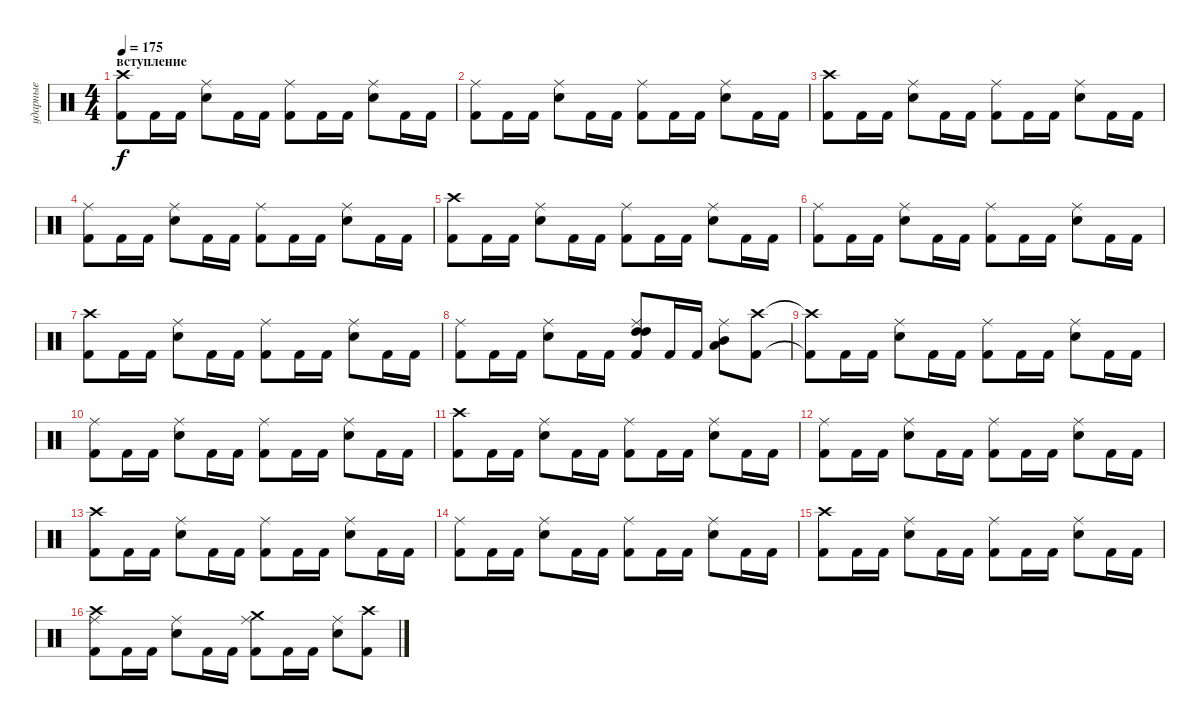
\track ("ударные" "ударные") {instrument percussion}
\staff {score}
\articulation defaults
\ts (4 4)
\section ("" "вступление")
\tempo 175
\clef neutral
\ks c
("Kick (hit) 2" "Crash high (hit)").8{dy f} "Kick (hit) 2".16 "Kick (hit) 2".16 ("Snare (hit) 2" "Ride (middle)").8 "Kick (hit) 2".16 "Kick (hit) 2".16 ("Kick (hit) 2" "Ride (middle)").8 "Kick (hit) 2".16 "Kick (hit) 2".16 ("Snare (hit) 2" "Ride (middle)").8 "Kick (hit) 2".16 "Kick (hit) 2".16 |
("Kick (hit) 2" "Ride (middle)").8 "Kick (hit) 2".16 "Kick (hit) 2".16 ("Snare (hit) 2" "Ride (middle)").8 "Kick (hit) 2".16 "Kick (hit) 2".16 ("Kick (hit) 2" "Ride (middle)").8 "Kick (hit) 2".16 "Kick (hit) 2".16 ("Snare (hit) 2" "Ride (middle)").8 "Kick (hit) 2".16 "Kick (hit) 2".16 |
("Kick (hit) 2" "Crash high (hit)").8 "Kick (hit) 2".16 "Kick (hit) 2".16 ("Snare (hit) 2" "Ride (middle)").8 "Kick (hit) 2".16 "Kick (hit) 2".16 ("Kick (hit) 2" "Ride (middle)").8 "Kick (hit) 2".16 "Kick (hit) 2".16 ("Snare (hit) 2" "Ride (middle)").8 "Kick (hit) 2".16 "Kick (hit) 2".16 |
("Kick (hit) 2" "Ride (middle)").8 "Kick (hit) 2".16 "Kick (hit) 2".16 ("Snare (hit) 2" "Ride (middle)").8 "Kick (hit) 2".16 "Kick (hit) 2".16 ("Kick (hit) 2" "Ride (middle)").8 "Kick (hit) 2".16 "Kick (hit) 2".16 ("Snare (hit) 2" "Ride (middle)").8 "Kick (hit) 2".16 "Kick (hit) 2".16 |
("Kick (hit) 2" "Crash high (hit)").8 "Kick (hit) 2".16 "Kick (hit) 2".16 ("Snare (hit) 2" "Ride (middle)").8 "Kick (hit) 2".16 "Kick (hit) 2".16 ("Kick (hit) 2" "Ride (middle)").8 "Kick (hit) 2".16 "Kick (hit) 2".16 ("Snare (hit) 2" "Ride (middle)").8 "Kick (hit) 2".16 "Kick (hit) 2".16 |
("Kick (hit) 2" "Ride (middle)").8 "Kick (hit) 2".16 "Kick (hit) 2".16 ("Snare (hit) 2" "Ride (middle)").8 "Kick (hit) 2".16 "Kick (hit) 2".16 ("Kick (hit) 2" "Ride (middle)").8 "Kick (hit) 2".16 "Kick (hit) 2".16 ("Snare (hit) 2" "Ride (middle)").8 "Kick (hit) 2".16 "Kick (hit) 2".16 |
("Kick (hit) 2" "Crash high (hit)").8 "Kick (hit) 2".16 "Kick (hit) 2".16 ("Snare (hit) 2" "Ride (middle)").8 "Kick (hit) 2".16 "Kick (hit) 2".16 ("Kick (hit) 2" "Ride (middle)").8 "Kick (hit) 2".16 "Kick (hit) 2".16 ("Snare (hit) 2" "Ride (middle)").8 "Kick (hit) 2".16 "Kick (hit) 2".16 |
("Kick (hit) 2" "Ride (middle)").8 "Kick (hit) 2".16 "Kick (hit) 2".16 ("Snare (hit) 2" "Ride (middle)").8 "Kick (hit) 2".16 "Kick (hit) 2".16 ("Kick (hit) 2" "High Tom (hit)" "Ride (middle)" "High Tom (hit)").8 "Kick (hit) 2".16 "Kick (hit) 2".16 ("Mid Tom (hit)" "Ride (middle)" "Low Tom (hit)").8 ("Kick (hit) 2" "Crash high (hit)").8 |
("Kick (hit) 2"{t} "Crash high (hit)"{t}).8 "Kick (hit) 2".16 "Kick (hit) 2".16 ("Snare (hit) 2" "Ride (middle)").8 "Kick (hit) 2".16 "Kick (hit) 2".16 ("Kick (hit) 2" "Ride (middle)").8 "Kick (hit) 2".16 "Kick (hit) 2".16 ("Snare (hit) 2" "Ride (middle)").8 "Kick (hit) 2".16 "Kick (hit) 2".16 |
("Kick (hit) 2" "Ride (middle)").8 "Kick (hit) 2".16 "Kick (hit) 2".16 ("Snare (hit) 2" "Ride (middle)").8 "Kick (hit) 2".16 "Kick (hit) 2".16 ("Kick (hit) 2" "Ride (middle)").8 "Kick (hit) 2".16 "Kick (hit) 2".16 ("Snare (hit) 2" "Ride (middle)").8 "Kick (hit) 2".16 "Kick (hit) 2".16 |
("Kick (hit) 2" "Crash high (hit)").8 "Kick (hit) 2".16 "Kick (hit) 2".16 ("Snare (hit) 2" "Ride (middle)").8 "Kick (hit) 2".16 "Kick (hit) 2".16 ("Kick (hit) 2" "Ride (middle)").8 "Kick (hit) 2".16 "Kick (hit) 2".16 ("Snare (hit) 2" "Ride (middle)").8 "Kick (hit) 2".16 "Kick (hit) 2".16 |
("Kick (hit) 2" "Ride (middle)").8 "Kick (hit) 2".16 "Kick (hit) 2".16 ("Snare (hit) 2" "Ride (middle)").8 "Kick (hit) 2".16 "Kick (hit) 2".16 ("Kick (hit) 2" "Ride (middle)").8 "Kick (hit) 2".16 "Kick (hit) 2".16 ("Snare (hit) 2" "Ride (middle)").8 "Kick (hit) 2".16 "Kick (hit) 2".16 |
("Kick (hit) 2" "Crash high (hit)").8 "Kick (hit) 2".16 "Kick (hit) 2".16 ("Snare (hit) 2" "Ride (middle)").8 "Kick (hit) 2".16 "Kick (hit) 2".16 ("Kick (hit) 2" "Ride (middle)").8 "Kick (hit) 2".16 "Kick (hit) 2".16 ("Snare (hit) 2" "Ride (middle)").8 "Kick (hit) 2".16 "Kick (hit) 2".16 |
("Kick (hit) 2" "Ride (middle)").8 "Kick (hit) 2".16 "Kick (hit) 2".16 ("Snare (hit) 2" "Ride (middle)").8 "Kick (hit) 2".16 "Kick (hit) 2".16 ("Kick (hit) 2" "Ride (middle)").8 "Kick (hit) 2".16 "Kick (hit) 2".16 ("Snare (hit) 2" "Ride (middle)").8 "Kick (hit) 2".16 "Kick (hit) 2".16 |
("Kick (hit) 2" "Crash high (hit)").8 "Kick (hit) 2".16 "Kick (hit) 2".16 ("Snare (hit) 2" "Ride (middle)").8 "Kick (hit) 2".16 "Kick (hit) 2".16 ("Kick (hit) 2" "Ride (middle)").8 "Kick (hit) 2".16 "Kick (hit) 2".16 ("Snare (hit) 2" "Ride (middle)").8 "Kick (hit) 2".16 "Kick (hit) 2".16 |
("Kick (hit) 2" "Ride (middle)" "Crash high (hit)").8 "Kick (hit) 2".16 "Kick (hit) 2".16 ("Snare (hit) 2" "Ride (middle)").8 "Kick (hit) 2".16 "Kick (hit) 2".16 ("Kick (hit) 2" "Ride (middle)" "Crash medium (hit)").8 "Kick (hit) 2".16 "Kick (hit) 2".16 ("Snare (hit) 2" "Ride (middle)").8 ("Kick (hit) 2" "Crash high (hit)").8
